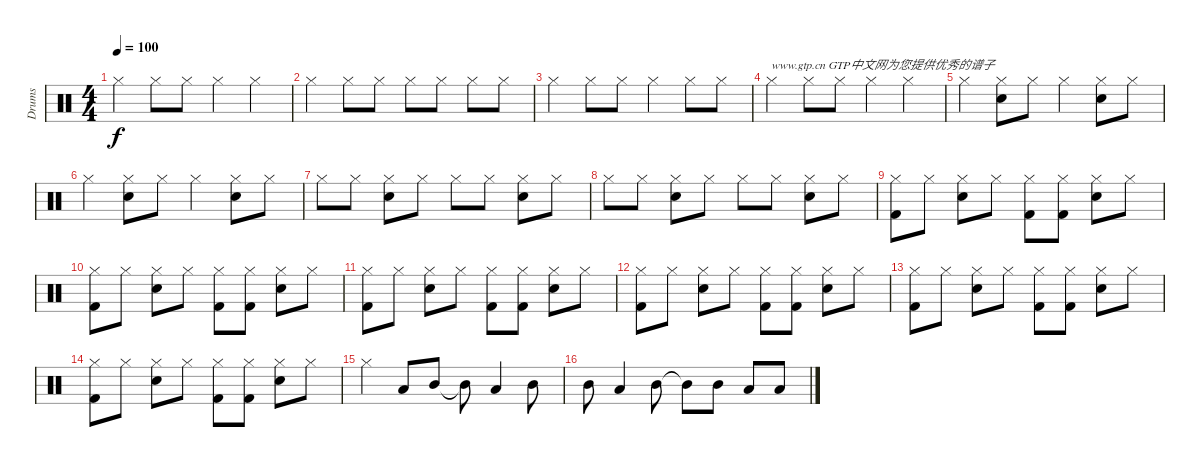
\track ("Drums" "Drums") {instrument percussion}
\staff {score}
\articulation defaults
\ts (4 4)
\tempo 100
\clef neutral
\ks c "Hi-Hat (closed)".4{dy f} "Hi-Hat (closed)".8 "Hi-Hat (closed)".8 "Hi-Hat (closed)".4 "Hi-Hat (closed)".4
|
"Hi-Hat (closed)".4 "Hi-Hat (closed)".8 "Hi-Hat (closed)".8 "Hi-Hat (closed)".8 "Hi-Hat (closed)".8 "Hi-Hat (closed)".8 "Hi-Hat (closed)".8 |
"Hi-Hat (closed)".4 "Hi-Hat (closed)".8 "Hi-Hat (closed)".8 "Hi-Hat (closed)".4 "Hi-Hat (closed)".8 "Hi-Hat (closed)".8 |
"Hi-Hat (closed)".4{txt "www.gtp.cn GTP中文网为您提供优秀的谱子"} "Hi-Hat (closed)".8 "Hi-Hat (closed)".8 "Hi-Hat (closed)".4 "Hi-Hat (closed)".4 |
"Hi-Hat (closed)".4 ("Hi-Hat (closed)" "Snare (hit) 2").8 "Hi-Hat (closed)".8 "Hi-Hat (closed)".4 ("Hi-Hat (closed)" "Snare (hit) 2").8 "Hi-Hat (closed)".8 |
"Hi-Hat (closed)".4 ("Hi-Hat (closed)" "Snare (hit) 2").8 "Hi-Hat (closed)".8 "Hi-Hat (closed)".4 ("Hi-Hat (closed)" "Snare (hit) 2").8 "Hi-Hat (closed)".8 |
"Hi-Hat (closed)".8 "Hi-Hat (closed)".8 ("Hi-Hat (closed)" "Snare (hit) 2").8 "Hi-Hat (closed)".8 "Hi-Hat (closed)".8 "Hi-Hat (closed)".8 ("Hi-Hat (closed)" "Snare (hit) 2").8 "Hi-Hat (closed)".8 |
"Hi-Hat (closed)".8 "Hi-Hat (closed)".8 ("Hi-Hat (closed)" "Snare (hit) 2").8 "Hi-Hat (closed)".8 "Hi-Hat (closed)".8 "Hi-Hat (closed)".8 ("Hi-Hat (closed)" "Snare (hit) 2").8 "Hi-Hat (closed)".8 |
("Hi-Hat (closed)" "Kick (hit) 2").8 "Hi-Hat (closed)".8 ("Hi-Hat (closed)" "Snare (hit) 2").8 "Hi-Hat (closed)".8 ("Hi-Hat (closed)" "Kick (hit) 2").8 ("Hi-Hat (closed)" "Kick (hit) 2").8 ("Hi-Hat (closed)" "Snare (hit) 2").8 "Hi-Hat (closed)".8 |
("Hi-Hat (closed)" "Kick (hit) 2").8 "Hi-Hat (closed)".8 ("Hi-Hat (closed)" "Snare (hit) 2").8 "Hi-Hat (closed)".8 ("Hi-Hat (closed)" "Kick (hit) 2").8 ("Hi-Hat (closed)" "Kick (hit) 2").8 ("Hi-Hat (closed)" "Snare (hit) 2").8 "Hi-Hat (closed)".8 |
("Hi-Hat (closed)" "Kick (hit) 2").8 "Hi-Hat (closed)".8 ("Hi-Hat (closed)" "Snare (hit) 2").8 "Hi-Hat (closed)".8 ("Hi-Hat (closed)" "Kick (hit) 2").8 ("Hi-Hat (closed)" "Kick (hit) 2").8 ("Hi-Hat (closed)" "Snare (hit) 2").8 "Hi-Hat (closed)".8 |
("Hi-Hat (closed)" "Kick (hit) 2").8 "Hi-Hat (closed)".8 ("Hi-Hat (closed)" "Snare (hit) 2").8 "Hi-Hat (closed)".8 ("Hi-Hat (closed)" "Kick (hit) 2").8 ("Hi-Hat (closed)" "Kick (hit) 2").8 ("Hi-Hat (closed)" "Snare (hit) 2").8 "Hi-Hat (closed)".8 |
("Hi-Hat (closed)" "Kick (hit) 2").8 "Hi-Hat (closed)".8 ("Hi-Hat (closed)" "Snare (hit) 2").8 "Hi-Hat (closed)".8 ("Hi-Hat (closed)" "Kick (hit) 2").8 ("Hi-Hat (closed)" "Kick (hit) 2").8 ("Hi-Hat (closed)" "Snare (hit) 2").8 "Hi-Hat (closed)".8 |
("Hi-Hat (closed)" "Kick (hit) 2").8 "Hi-Hat (closed)".8 ("Hi-Hat (closed)" "Snare (hit) 2").8 "Hi-Hat (closed)".8 ("Hi-Hat (closed)" "Kick (hit) 2").8 ("Hi-Hat (closed)" "Kick (hit) 2").8 ("Hi-Hat (closed)" "Snare (hit) 2").8 "Hi-Hat (closed)".8 |
"Hi-Hat (closed)".4 "Low Tom (hit)".8 "Mid Tom (hit)".8 "Mid Tom (hit)"{t}.8 "Low Tom (hit)".4 "Mid Tom (hit)".8 |
"Mid Tom (hit)".8 "Low Tom (hit)".4 "Mid Tom (hit)".8 "Mid Tom (hit)"{t}.8 "Mid Tom (hit)".8 "Low Tom (hit)".8 "Low Tom (hit)".8
